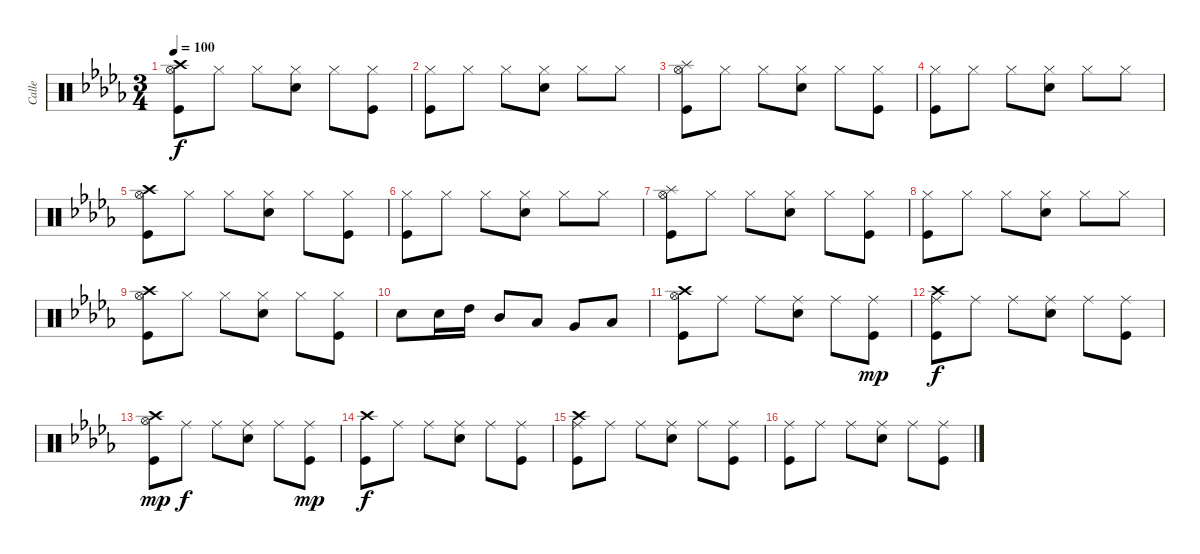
\track ("Calle" "Calle") {instrument percussion}
\staff {score}
\articulation defaults
\ts (3 4)
\tempo 100
\clef neutral
\ks bbminor
("Crash high (hit)" "Hi-Hat (open)" "Kick (hit)").8{dy f} "Hi-Hat (closed)".8 "Hi-Hat (closed)".8 ("Hi-Hat (closed)" "Electric Snare (hit)").8 "Hi-Hat (closed)".8 ("Hi-Hat (closed)" "Kick (hit)").8 |
("Hi-Hat (closed)" "Kick (hit)").8 "Hi-Hat (closed)".8 "Hi-Hat (closed)".8 ("Hi-Hat (closed)" "Electric Snare (hit)").8 "Hi-Hat (closed)".8 "Hi-Hat (closed)".8 |
("Splash (hit)" "Hi-Hat (open)" "Kick (hit)").8 "Hi-Hat (closed)".8 "Hi-Hat (closed)".8 ("Hi-Hat (closed)" "Electric Snare (hit)").8 "Hi-Hat (closed)".8 ("Hi-Hat (closed)" "Kick (hit)").8 |
("Hi-Hat (closed)" "Kick (hit)").8 "Hi-Hat (closed)".8 "Hi-Hat (closed)".8 ("Hi-Hat (closed)" "Electric Snare (hit)").8 "Hi-Hat (closed)".8 "Hi-Hat (closed)".8 |
("Crash high (hit)" "Hi-Hat (open)" "Kick (hit)").8 "Hi-Hat (closed)".8 "Hi-Hat (closed)".8 ("Hi-Hat (closed)" "Electric Snare (hit)").8 "Hi-Hat (closed)".8 ("Hi-Hat (closed)" "Kick (hit)").8 |
("Hi-Hat (closed)" "Kick (hit)").8 "Hi-Hat (closed)".8 "Hi-Hat (closed)".8 ("Hi-Hat (closed)" "Electric Snare (hit)").8 "Hi-Hat (closed)".8 "Hi-Hat (closed)".8 |
("Splash (hit)" "Hi-Hat (open)" "Kick (hit)").8 "Hi-Hat (closed)".8 "Hi-Hat (closed)".8 ("Hi-Hat (closed)" "Electric Snare (hit)").8 "Hi-Hat (closed)".8 ("Hi-Hat (closed)" "Kick (hit)").8 |
("Hi-Hat (closed)" "Kick (hit)").8 "Hi-Hat (closed)".8 "Hi-Hat (closed)".8 ("Hi-Hat (closed)" "Electric Snare (hit)").8 "Hi-Hat (closed)".8 "Hi-Hat (closed)".8 |
("Crash high (hit)" "Hi-Hat (open)" "Kick (hit)").8 "Hi-Hat (closed)".8 "Hi-Hat (closed)".8 ("Hi-Hat (closed)" "Electric Snare (hit)").8 "Hi-Hat (closed)".8 ("Hi-Hat (closed)" "Kick (hit)").8 |
"Electric Snare (hit)".8 "Electric Snare (hit)".16 "High Tom (hit)".16 "Mid Tom (hit)".8 "Low Tom (hit)".8 "Very Low Tom (hit)".8 "Low Floor Tom (hit)".8 |
("Crash high (hit)" "Hi-Hat (open)" "Kick (hit)").8 "Ride (middle)".8 "Ride (middle)".8 ("Ride (middle)" "Electric Snare (hit)").8 "Ride (middle)".8 ("Ride (middle)" "Kick (hit)").8{dy mp} |
("Crash high (hit)" "Ride (middle)" "Kick (hit)").8{dy f} "Ride (middle)".8 "Ride (middle)".8 ("Ride (middle)" "Electric Snare (hit)").8 "Ride (middle)".8 ("Ride (middle)" "Kick (hit)").8 |
("Crash high (hit)" "Hi-Hat (open)" "Kick (hit)").8{dy mp} "Ride (middle)".8{dy f} "Ride (middle)".8 ("Ride (middle)" "Electric Snare (hit)").8 "Ride (middle)".8 ("Ride (middle)" "Kick (hit)").8{dy mp} |
("Crash high (hit)" "Kick (hit)").8{dy f} "Ride (middle)".8 "Ride (middle)".8 ("Ride (middle)" "Electric Snare (hit)").8 "Ride (middle)".8 ("Ride (middle)" "Kick (hit)").8 |
("Crash high (hit)" "Ride (middle)" "Kick (hit)").8 "Ride (middle)".8 "Ride (middle)".8 ("Ride (middle)" "Electric Snare (hit)").8 "Ride (middle)".8 ("Ride (middle)" "Kick (hit)").8 |
("Ride (middle)" "Kick (hit)").8 "Ride (middle)".8 "Ride (middle)".8 ("Ride (middle)" "Electric Snare (hit)").8 "Ride (middle)".8 ("Ride (middle)" "Kick (hit)").8
